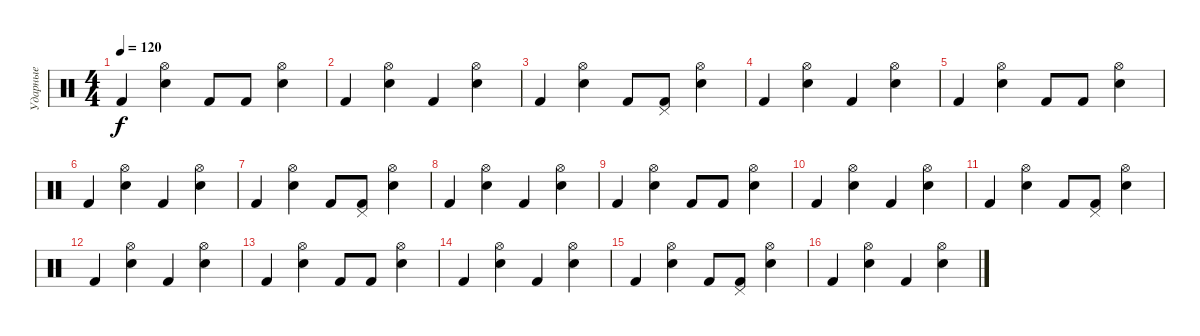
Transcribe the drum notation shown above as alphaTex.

\track ("Ударные" "Ударные") {instrument percussion}
\staff {score}
\articulation defaults
\ts (4 4)
\tempo 120
\clef neutral
\ks c "Kick (hit) 2".4{dy f}
("Hi-Hat (open)" "Electric Snare (hit)").4 "Kick (hit) 2".8 "Kick (hit) 2".8 ("Hi-Hat (open)" "Electric Snare (hit)").4 |
"Kick (hit) 2".4 ("Hi-Hat (open)" "Electric Snare (hit)").4 "Kick (hit) 2".4 ("Hi-Hat (open)" "Electric Snare (hit)").4 |
"Kick (hit) 2".4 ("Hi-Hat (open)" "Electric Snare (hit)").4 "Kick (hit) 2".8 ("Pedal Hi-Hat (hit)" "Kick (hit) 2").8 ("Hi-Hat (open)" "Electric Snare (hit)").4 |
"Kick (hit) 2".4 ("Hi-Hat (open)" "Electric Snare (hit)").4 "Kick (hit) 2".4 ("Hi-Hat (open)" "Electric Snare (hit)").4 |
"Kick (hit) 2".4 ("Hi-Hat (open)" "Electric Snare (hit)").4 "Kick (hit) 2".8 "Kick (hit) 2".8 ("Hi-Hat (open)" "Electric Snare (hit)").4 |
"Kick (hit) 2".4 ("Hi-Hat (open)" "Electric Snare (hit)").4 "Kick (hit) 2".4 ("Hi-Hat (open)" "Electric Snare (hit)").4 |
"Kick (hit) 2".4 ("Hi-Hat (open)" "Electric Snare (hit)").4 "Kick (hit) 2".8 ("Pedal Hi-Hat (hit)" "Kick (hit) 2").8 ("Hi-Hat (open)" "Electric Snare (hit)").4 |
"Kick (hit) 2".4 ("Hi-Hat (open)" "Electric Snare (hit)").4 "Kick (hit) 2".4 ("Hi-Hat (open)" "Electric Snare (hit)").4 |
"Kick (hit) 2".4 ("Hi-Hat (open)" "Electric Snare (hit)").4 "Kick (hit) 2".8 "Kick (hit) 2".8 ("Hi-Hat (open)" "Electric Snare (hit)").4 |
"Kick (hit) 2".4 ("Hi-Hat (open)" "Electric Snare (hit)").4 "Kick (hit) 2".4 ("Hi-Hat (open)" "Electric Snare (hit)").4 |
"Kick (hit) 2".4 ("Hi-Hat (open)" "Electric Snare (hit)").4 "Kick (hit) 2".8 ("Pedal Hi-Hat (hit)" "Kick (hit) 2").8 ("Hi-Hat (open)" "Electric Snare (hit)").4 |
"Kick (hit) 2".4 ("Hi-Hat (open)" "Electric Snare (hit)").4 "Kick (hit) 2".4 ("Hi-Hat (open)" "Electric Snare (hit)").4 |
"Kick (hit) 2".4 ("Hi-Hat (open)" "Electric Snare (hit)").4 "Kick (hit) 2".8 "Kick (hit) 2".8 ("Hi-Hat (open)" "Electric Snare (hit)").4 |
"Kick (hit) 2".4 ("Hi-Hat (open)" "Electric Snare (hit)").4 "Kick (hit) 2".4 ("Hi-Hat (open)" "Electric Snare (hit)").4 |
"Kick (hit) 2".4 ("Hi-Hat (open)" "Electric Snare (hit)").4 "Kick (hit) 2".8 ("Pedal Hi-Hat (hit)" "Kick (hit) 2").8 ("Hi-Hat (open)" "Electric Snare (hit)").4 |
"Kick (hit) 2".4 ("Hi-Hat (open)" "Electric Snare (hit)").4 "Kick (hit) 2".4 ("Hi-Hat (open)" "Electric Snare (hit)").4
